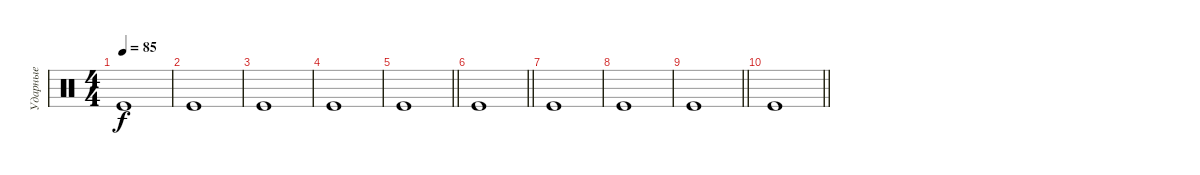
\track ("Ударные" "Ударные") {instrument percussion}
\staff {score}
\articulation defaults
\ts (4 4)
\tempo 85
\clef neutral
\ks c "Kick (hit)".1{dy f}
|
"Kick (hit)".1 |
"Kick (hit)".1 |
"Kick (hit)".1 |
\barLineRight lightlight "Kick (hit)".1
|
\barLineRight lightlight "Kick (hit)".1
|
"Kick (hit)".1 |
"Kick (hit)".1 |
\barLineRight lightlight "Kick (hit)".1
|
\barLineRight lightlight "Kick (hit)".1
